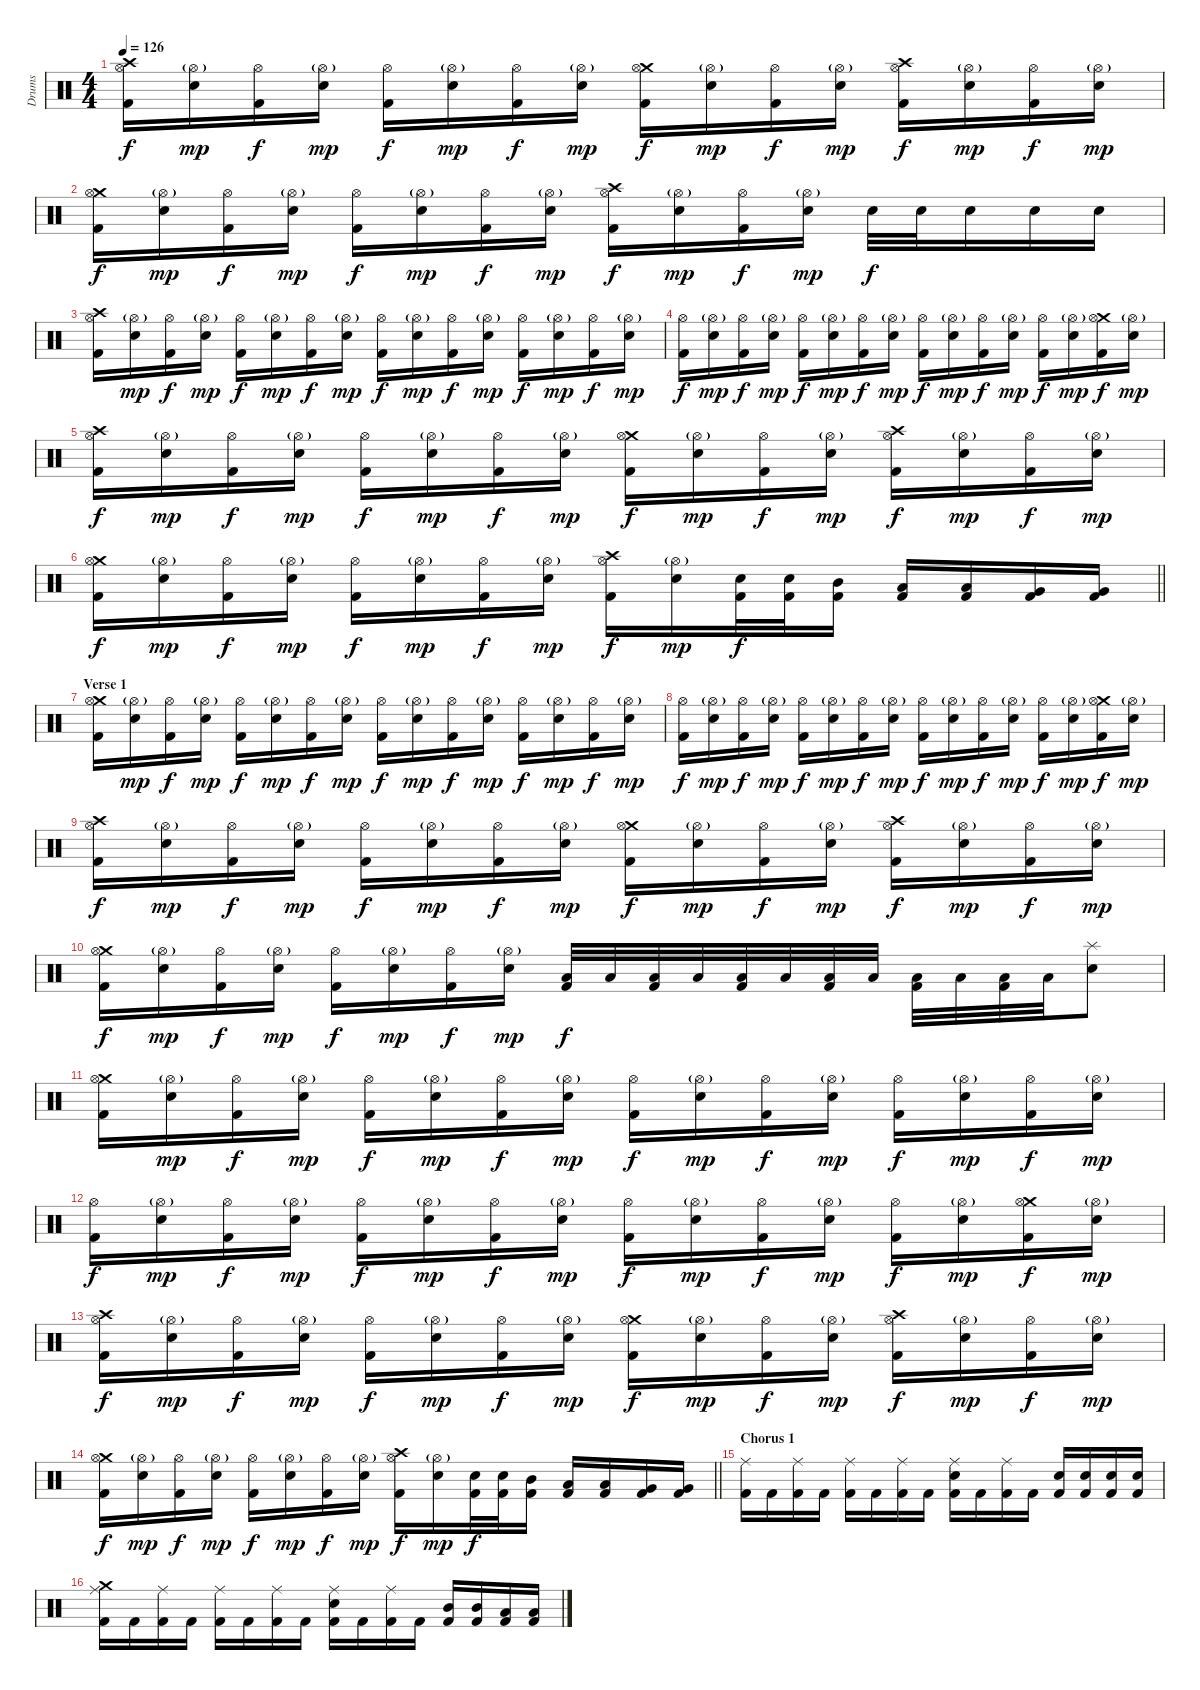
\track ("Drums" "Drums") {instrument percussion}
\staff {score}
\articulation defaults
\ts (4 4)
\tempo 126
\clef neutral
\ks c
("Crash high (hit)" "Hi-Hat (open)" "Kick (hit) 2").16{dy f} ("Hi-Hat (open)"{g} "Electric Snare (hit)").16{dy mp} ("Hi-Hat (open)" "Kick (hit) 2").16{dy f} ("Hi-Hat (open)"{g} "Electric Snare (hit)").16{dy mp} ("Hi-Hat (open)" "Kick (hit) 2").16{dy f} ("Hi-Hat (open)"{g} "Electric Snare (hit)").16{dy mp} ("Hi-Hat (open)" "Kick (hit) 2").16{dy f} ("Hi-Hat (open)"{g} "Electric Snare (hit)").16{dy mp} ("Crash medium (hit)" "Hi-Hat (open)" "Kick (hit) 2").16{dy f} ("Hi-Hat (open)"{g} "Electric Snare (hit)").16{dy mp} ("Hi-Hat (open)" "Kick (hit) 2").16{dy f} ("Hi-Hat (open)"{g} "Electric Snare (hit)").16{dy mp} ("Crash high (hit)" "Hi-Hat (open)" "Kick (hit) 2").16{dy f} ("Hi-Hat (open)"{g} "Electric Snare (hit)").16{dy mp} ("Hi-Hat (open)" "Kick (hit) 2").16{dy f} ("Hi-Hat (open)"{g} "Electric Snare (hit)").16{dy mp} |
("Crash medium (hit)" "Hi-Hat (open)" "Kick (hit) 2").16{dy f} ("Hi-Hat (open)"{g} "Electric Snare (hit)").16{dy mp} ("Hi-Hat (open)" "Kick (hit) 2").16{dy f} ("Hi-Hat (open)"{g} "Electric Snare (hit)").16{dy mp} ("Hi-Hat (open)" "Kick (hit) 2").16{dy f} ("Hi-Hat (open)"{g} "Electric Snare (hit)").16{dy mp} ("Hi-Hat (open)" "Kick (hit) 2").16{dy f} ("Hi-Hat (open)"{g} "Electric Snare (hit)").16{dy mp} ("Crash high (hit)" "Hi-Hat (open)" "Kick (hit) 2").16{dy f} ("Hi-Hat (open)"{g} "Electric Snare (hit)").16{dy mp} ("Hi-Hat (open)" "Kick (hit) 2").16{dy f} ("Hi-Hat (open)"{g} "Electric Snare (hit)").16{dy mp} "Electric Snare (hit)".32{dy f} "Electric Snare (hit)".32 "Electric Snare (hit)".16 "Electric Snare (hit)".16 "Electric Snare (hit)".16 |
("Crash high (hit)" "Hi-Hat (open)" "Kick (hit) 2").16 ("Hi-Hat (open)"{g} "Electric Snare (hit)").16{dy mp} ("Hi-Hat (open)" "Kick (hit) 2").16{dy f} ("Hi-Hat (open)"{g} "Electric Snare (hit)").16{dy mp} ("Hi-Hat (open)" "Kick (hit) 2").16{dy f} ("Hi-Hat (open)"{g} "Electric Snare (hit)").16{dy mp} ("Hi-Hat (open)" "Kick (hit) 2").16{dy f} ("Hi-Hat (open)"{g} "Electric Snare (hit)").16{dy mp} ("Hi-Hat (open)" "Kick (hit) 2").16{dy f} ("Hi-Hat (open)"{g} "Electric Snare (hit)").16{dy mp} ("Hi-Hat (open)" "Kick (hit) 2").16{dy f} ("Hi-Hat (open)"{g} "Electric Snare (hit)").16{dy mp} ("Hi-Hat (open)" "Kick (hit) 2").16{dy f} ("Hi-Hat (open)"{g} "Electric Snare (hit)").16{dy mp} ("Hi-Hat (open)" "Kick (hit) 2").16{dy f} ("Hi-Hat (open)"{g} "Electric Snare (hit)").16{dy mp} |
("Hi-Hat (open)" "Kick (hit) 2").16{dy f} ("Hi-Hat (open)"{g} "Electric Snare (hit)").16{dy mp} ("Hi-Hat (open)" "Kick (hit) 2").16{dy f} ("Hi-Hat (open)"{g} "Electric Snare (hit)").16{dy mp} ("Hi-Hat (open)" "Kick (hit) 2").16{dy f} ("Hi-Hat (open)"{g} "Electric Snare (hit)").16{dy mp} ("Hi-Hat (open)" "Kick (hit) 2").16{dy f} ("Hi-Hat (open)"{g} "Electric Snare (hit)").16{dy mp} ("Hi-Hat (open)" "Kick (hit) 2").16{dy f} ("Hi-Hat (open)"{g} "Electric Snare (hit)").16{dy mp} ("Hi-Hat (open)" "Kick (hit) 2").16{dy f} ("Hi-Hat (open)"{g} "Electric Snare (hit)").16{dy mp} ("Hi-Hat (open)" "Kick (hit) 2").16{dy f} ("Hi-Hat (open)"{g} "Electric Snare (hit)").16{dy mp} ("Crash medium (hit)" "Hi-Hat (open)" "Kick (hit) 2").16{dy f} ("Hi-Hat (open)"{g} "Electric Snare (hit)").16{dy mp} |
("Crash high (hit)" "Hi-Hat (open)" "Kick (hit) 2").16{dy f} ("Hi-Hat (open)"{g} "Electric Snare (hit)").16{dy mp} ("Hi-Hat (open)" "Kick (hit) 2").16{dy f} ("Hi-Hat (open)"{g} "Electric Snare (hit)").16{dy mp} ("Hi-Hat (open)" "Kick (hit) 2").16{dy f} ("Hi-Hat (open)"{g} "Electric Snare (hit)").16{dy mp} ("Hi-Hat (open)" "Kick (hit) 2").16{dy f} ("Hi-Hat (open)"{g} "Electric Snare (hit)").16{dy mp} ("Crash medium (hit)" "Hi-Hat (open)" "Kick (hit) 2").16{dy f} ("Hi-Hat (open)"{g} "Electric Snare (hit)").16{dy mp} ("Hi-Hat (open)" "Kick (hit) 2").16{dy f} ("Hi-Hat (open)"{g} "Electric Snare (hit)").16{dy mp} ("Crash high (hit)" "Hi-Hat (open)" "Kick (hit) 2").16{dy f} ("Hi-Hat (open)"{g} "Electric Snare (hit)").16{dy mp} ("Hi-Hat (open)" "Kick (hit) 2").16{dy f} ("Hi-Hat (open)"{g} "Electric Snare (hit)").16{dy mp} |
\barLineRight lightlight
("Crash medium (hit)" "Hi-Hat (open)" "Kick (hit) 2").16{dy f} ("Hi-Hat (open)"{g} "Electric Snare (hit)").16{dy mp} ("Hi-Hat (open)" "Kick (hit) 2").16{dy f} ("Hi-Hat (open)"{g} "Electric Snare (hit)").16{dy mp} ("Hi-Hat (open)" "Kick (hit) 2").16{dy f} ("Hi-Hat (open)"{g} "Electric Snare (hit)").16{dy mp} ("Hi-Hat (open)" "Kick (hit) 2").16{dy f} ("Hi-Hat (open)"{g} "Electric Snare (hit)").16{dy mp} ("Crash high (hit)" "Hi-Hat (open)" "Kick (hit) 2").16{dy f} ("Hi-Hat (open)"{g} "Electric Snare (hit)").16{dy mp} ("Electric Snare (hit)" "Kick (hit) 2").32{dy f} ("Electric Snare (hit)" "Kick (hit) 2").32 ("Mid Tom (hit)" "Kick (hit) 2").16 ("Low Tom (hit)" "Kick (hit) 2").16 ("Low Tom (hit)" "Kick (hit) 2").16 ("Very Low Tom (hit)" "Kick (hit) 2").16 ("Very Low Tom (hit)" "Kick (hit) 2").16 |
\section ("" "Verse 1")
("Crash medium (hit)" "Hi-Hat (open)" "Kick (hit) 2").16 ("Hi-Hat (open)"{g} "Electric Snare (hit)").16{dy mp} ("Hi-Hat (open)" "Kick (hit) 2").16{dy f} ("Hi-Hat (open)"{g} "Electric Snare (hit)").16{dy mp} ("Hi-Hat (open)" "Kick (hit) 2").16{dy f} ("Hi-Hat (open)"{g} "Electric Snare (hit)").16{dy mp} ("Hi-Hat (open)" "Kick (hit) 2").16{dy f} ("Hi-Hat (open)"{g} "Electric Snare (hit)").16{dy mp} ("Hi-Hat (open)" "Kick (hit) 2").16{dy f} ("Hi-Hat (open)"{g} "Electric Snare (hit)").16{dy mp} ("Hi-Hat (open)" "Kick (hit) 2").16{dy f} ("Hi-Hat (open)"{g} "Electric Snare (hit)").16{dy mp} ("Hi-Hat (open)" "Kick (hit) 2").16{dy f} ("Hi-Hat (open)"{g} "Electric Snare (hit)").16{dy mp} ("Hi-Hat (open)" "Kick (hit) 2").16{dy f} ("Hi-Hat (open)"{g} "Electric Snare (hit)").16{dy mp} |
("Hi-Hat (open)" "Kick (hit) 2").16{dy f} ("Hi-Hat (open)"{g} "Electric Snare (hit)").16{dy mp} ("Hi-Hat (open)" "Kick (hit) 2").16{dy f} ("Hi-Hat (open)"{g} "Electric Snare (hit)").16{dy mp} ("Hi-Hat (open)" "Kick (hit) 2").16{dy f} ("Hi-Hat (open)"{g} "Electric Snare (hit)").16{dy mp} ("Hi-Hat (open)" "Kick (hit) 2").16{dy f} ("Hi-Hat (open)"{g} "Electric Snare (hit)").16{dy mp} ("Hi-Hat (open)" "Kick (hit) 2").16{dy f} ("Hi-Hat (open)"{g} "Electric Snare (hit)").16{dy mp} ("Hi-Hat (open)" "Kick (hit) 2").16{dy f} ("Hi-Hat (open)"{g} "Electric Snare (hit)").16{dy mp} ("Hi-Hat (open)" "Kick (hit) 2").16{dy f} ("Hi-Hat (open)"{g} "Electric Snare (hit)").16{dy mp} ("Crash medium (hit)" "Hi-Hat (open)" "Kick (hit) 2").16{dy f} ("Hi-Hat (open)"{g} "Electric Snare (hit)").16{dy mp} |
("Crash high (hit)" "Hi-Hat (open)" "Kick (hit) 2").16{dy f} ("Hi-Hat (open)"{g} "Electric Snare (hit)").16{dy mp} ("Hi-Hat (open)" "Kick (hit) 2").16{dy f} ("Hi-Hat (open)"{g} "Electric Snare (hit)").16{dy mp} ("Hi-Hat (open)" "Kick (hit) 2").16{dy f} ("Hi-Hat (open)"{g} "Electric Snare (hit)").16{dy mp} ("Hi-Hat (open)" "Kick (hit) 2").16{dy f} ("Hi-Hat (open)"{g} "Electric Snare (hit)").16{dy mp} ("Crash medium (hit)" "Hi-Hat (open)" "Kick (hit) 2").16{dy f} ("Hi-Hat (open)"{g} "Electric Snare (hit)").16{dy mp} ("Hi-Hat (open)" "Kick (hit) 2").16{dy f} ("Hi-Hat (open)"{g} "Electric Snare (hit)").16{dy mp} ("Crash high (hit)" "Hi-Hat (open)" "Kick (hit) 2").16{dy f} ("Hi-Hat (open)"{g} "Electric Snare (hit)").16{dy mp} ("Hi-Hat (open)" "Kick (hit) 2").16{dy f} ("Hi-Hat (open)"{g} "Electric Snare (hit)").16{dy mp} |
("Crash medium (hit)" "Hi-Hat (open)" "Kick (hit) 2").16{dy f} ("Hi-Hat (open)"{g} "Electric Snare (hit)").16{dy mp} ("Hi-Hat (open)" "Kick (hit) 2").16{dy f} ("Hi-Hat (open)"{g} "Electric Snare (hit)").16{dy mp} ("Hi-Hat (open)" "Kick (hit) 2").16{dy f} ("Hi-Hat (open)"{g} "Electric Snare (hit)").16{dy mp} ("Hi-Hat (open)" "Kick (hit) 2").16{dy f} ("Hi-Hat (open)"{g} "Electric Snare (hit)").16{dy mp} ("Low Tom (hit)" "Kick (hit) 2").32{dy f} "Low Tom (hit)".32 ("Low Tom (hit)" "Kick (hit) 2").32 "Low Tom (hit)".32 ("Low Tom (hit)" "Kick (hit) 2").32 "Low Tom (hit)".32 ("Low Tom (hit)" "Kick (hit) 2").32 "Low Tom (hit)".32 ("Low Tom (hit)" "Kick (hit) 2").32 "Low Tom (hit)".32 ("Low Tom (hit)" "Kick (hit) 2").32 "Low Tom (hit)".32 ("Splash (hit)" "Electric Snare (hit)").8 |
("Crash medium (hit)" "Hi-Hat (open)" "Kick (hit) 2").16 ("Hi-Hat (open)"{g} "Electric Snare (hit)").16{dy mp} ("Hi-Hat (open)" "Kick (hit) 2").16{dy f} ("Hi-Hat (open)"{g} "Electric Snare (hit)").16{dy mp} ("Hi-Hat (open)" "Kick (hit) 2").16{dy f} ("Hi-Hat (open)"{g} "Electric Snare (hit)").16{dy mp} ("Hi-Hat (open)" "Kick (hit) 2").16{dy f} ("Hi-Hat (open)"{g} "Electric Snare (hit)").16{dy mp} ("Hi-Hat (open)" "Kick (hit) 2").16{dy f} ("Hi-Hat (open)"{g} "Electric Snare (hit)").16{dy mp} ("Hi-Hat (open)" "Kick (hit) 2").16{dy f} ("Hi-Hat (open)"{g} "Electric Snare (hit)").16{dy mp} ("Hi-Hat (open)" "Kick (hit) 2").16{dy f} ("Hi-Hat (open)"{g} "Electric Snare (hit)").16{dy mp} ("Hi-Hat (open)" "Kick (hit) 2").16{dy f} ("Hi-Hat (open)"{g} "Electric Snare (hit)").16{dy mp} |
("Hi-Hat (open)" "Kick (hit) 2").16{dy f} ("Hi-Hat (open)"{g} "Electric Snare (hit)").16{dy mp} ("Hi-Hat (open)" "Kick (hit) 2").16{dy f} ("Hi-Hat (open)"{g} "Electric Snare (hit)").16{dy mp} ("Hi-Hat (open)" "Kick (hit) 2").16{dy f} ("Hi-Hat (open)"{g} "Electric Snare (hit)").16{dy mp} ("Hi-Hat (open)" "Kick (hit) 2").16{dy f} ("Hi-Hat (open)"{g} "Electric Snare (hit)").16{dy mp} ("Hi-Hat (open)" "Kick (hit) 2").16{dy f} ("Hi-Hat (open)"{g} "Electric Snare (hit)").16{dy mp} ("Hi-Hat (open)" "Kick (hit) 2").16{dy f} ("Hi-Hat (open)"{g} "Electric Snare (hit)").16{dy mp} ("Hi-Hat (open)" "Kick (hit) 2").16{dy f} ("Hi-Hat (open)"{g} "Electric Snare (hit)").16{dy mp} ("Crash medium (hit)" "Hi-Hat (open)" "Kick (hit) 2").16{dy f} ("Hi-Hat (open)"{g} "Electric Snare (hit)").16{dy mp} |
("Crash high (hit)" "Hi-Hat (open)" "Kick (hit) 2").16{dy f} ("Hi-Hat (open)"{g} "Electric Snare (hit)").16{dy mp} ("Hi-Hat (open)" "Kick (hit) 2").16{dy f} ("Hi-Hat (open)"{g} "Electric Snare (hit)").16{dy mp} ("Hi-Hat (open)" "Kick (hit) 2").16{dy f} ("Hi-Hat (open)"{g} "Electric Snare (hit)").16{dy mp} ("Hi-Hat (open)" "Kick (hit) 2").16{dy f} ("Hi-Hat (open)"{g} "Electric Snare (hit)").16{dy mp} ("Crash medium (hit)" "Hi-Hat (open)" "Kick (hit) 2").16{dy f} ("Hi-Hat (open)"{g} "Electric Snare (hit)").16{dy mp} ("Hi-Hat (open)" "Kick (hit) 2").16{dy f} ("Hi-Hat (open)"{g} "Electric Snare (hit)").16{dy mp} ("Crash high (hit)" "Hi-Hat (open)" "Kick (hit) 2").16{dy f} ("Hi-Hat (open)"{g} "Electric Snare (hit)").16{dy mp} ("Hi-Hat (open)" "Kick (hit) 2").16{dy f} ("Hi-Hat (open)"{g} "Electric Snare (hit)").16{dy mp} |
\barLineRight lightlight
("Crash medium (hit)" "Hi-Hat (open)" "Kick (hit) 2").16{dy f} ("Hi-Hat (open)"{g} "Electric Snare (hit)").16{dy mp} ("Hi-Hat (open)" "Kick (hit) 2").16{dy f} ("Hi-Hat (open)"{g} "Electric Snare (hit)").16{dy mp} ("Hi-Hat (open)" "Kick (hit) 2").16{dy f} ("Hi-Hat (open)"{g} "Electric Snare (hit)").16{dy mp} ("Hi-Hat (open)" "Kick (hit) 2").16{dy f} ("Hi-Hat (open)"{g} "Electric Snare (hit)").16{dy mp} ("Crash high (hit)" "Hi-Hat (open)" "Kick (hit) 2").16{dy f} ("Hi-Hat (open)"{g} "Electric Snare (hit)").16{dy mp} ("Electric Snare (hit)" "Kick (hit) 2").32{dy f} ("Electric Snare (hit)" "Kick (hit) 2").32 ("Mid Tom (hit)" "Kick (hit) 2").16 ("Low Tom (hit)" "Kick (hit) 2").16 ("Low Tom (hit)" "Kick (hit) 2").16 ("Very Low Tom (hit)" "Kick (hit) 2").16 ("Very Low Tom (hit)" "Kick (hit) 2").16 |
\section ("" "Chorus 1")
("Ride (middle)" "Kick (hit) 2").16 "Kick (hit) 2".16 ("Ride (middle)" "Kick (hit) 2").16 "Kick (hit) 2".16 ("Ride (middle)" "Kick (hit) 2").16 "Kick (hit) 2".16 ("Ride (middle)" "Kick (hit) 2").16 "Kick (hit) 2".16 ("Ride (middle)" "Electric Snare (hit)" "Kick (hit) 2").16 "Kick (hit) 2".16 ("Ride (middle)" "Kick (hit) 2").16 "Kick (hit) 2".16 ("Electric Snare (hit)" "Kick (hit) 2").16 ("Electric Snare (hit)" "Kick (hit) 2").16 ("Electric Snare (hit)" "Kick (hit) 2").16 ("Electric Snare (hit)" "Kick (hit) 2").16 |
("Crash medium (hit)" "Ride (middle)" "Kick (hit) 2").16 "Kick (hit) 2".16 ("Ride (middle)" "Kick (hit) 2").16 "Kick (hit) 2".16 ("Ride (middle)" "Kick (hit) 2").16 "Kick (hit) 2".16 ("Ride (middle)" "Kick (hit) 2").16 "Kick (hit) 2".16 ("Ride (middle)" "Electric Snare (hit)" "Kick (hit) 2").16 "Kick (hit) 2".16 ("Ride (middle)" "Kick (hit) 2").16 "Kick (hit) 2".16 ("Mid Tom (hit)" "Kick (hit) 2").16 ("Mid Tom (hit)" "Kick (hit) 2").16 ("Low Tom (hit)" "Kick (hit) 2").16 ("Low Tom (hit)" "Kick (hit) 2").16
